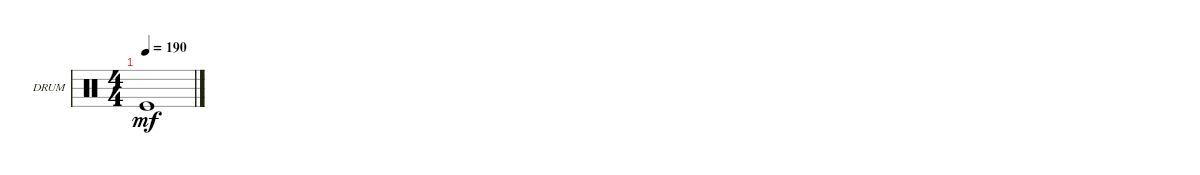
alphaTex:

\defaultSystemsLayout 4
\bracketExtendMode groupsimilarinstruments
\firstSystemTrackNameOrientation horizontal
\otherSystemsTrackNameOrientation horizontal
\track ("Drums" "DRUM") {instrument percussion}
\staff {score}
\articulation defaults
\ts (4 4)
\tempo 190
\clef neutral
\ks c "Kick (hit)".1{dy mf}
